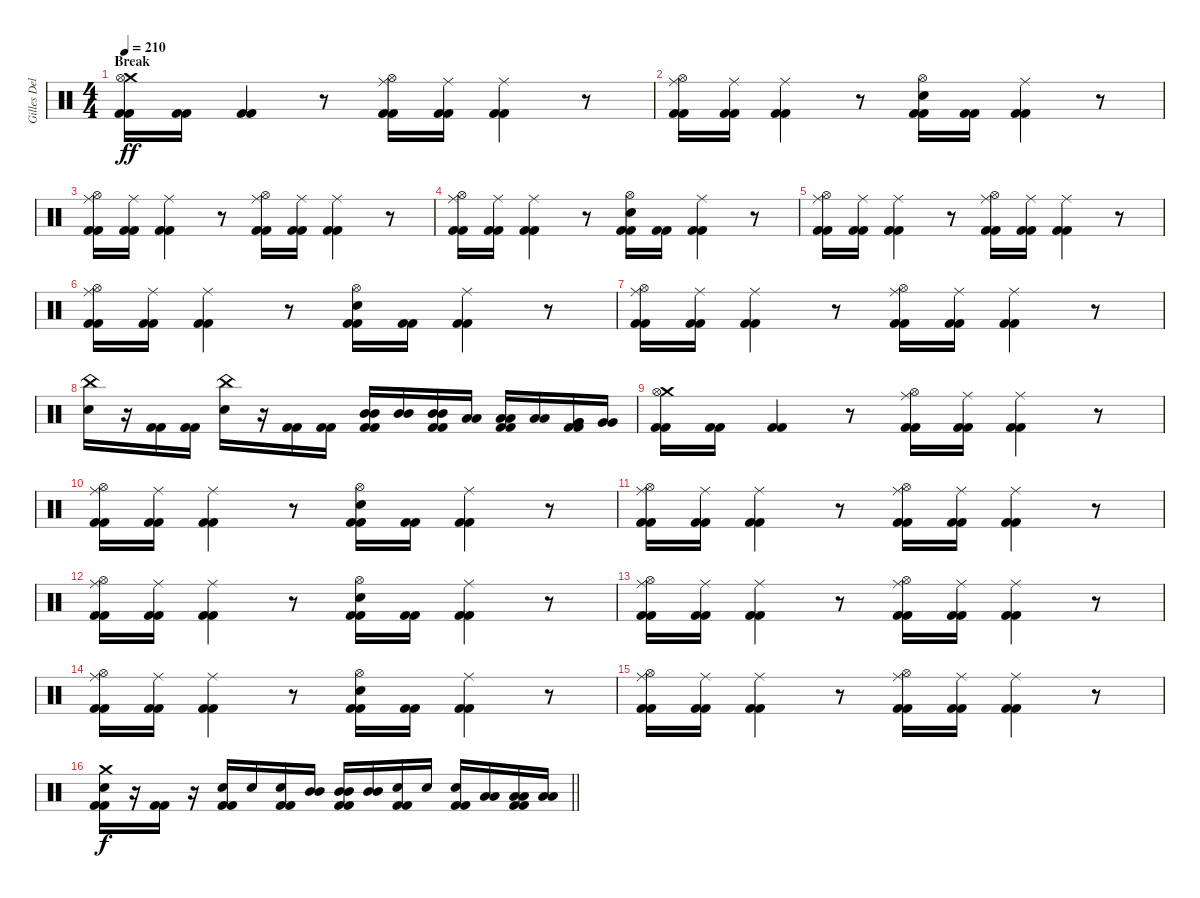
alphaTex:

\track ("Gilles Delecroix" "Gilles Del") {instrument percussion}
\staff {score}
\articulation defaults
\ts (4 4)
\section ("" "Break")
\tempo 210
\clef neutral
\ks c
("Crash medium (hit)" "Hi-Hat (open)" "Kick (hit) 2" "Kick (hit) 2").16{dy ff} ("Kick (hit) 2" "Kick (hit) 2").16 ("Kick (hit) 2" "Kick (hit) 2").4 r.8 ("Ride (middle)" "Hi-Hat (open)" "Kick (hit) 2" "Kick (hit) 2").16 ("Ride (middle)" "Kick (hit) 2" "Kick (hit) 2").16 ("Ride (middle)" "Kick (hit) 2" "Kick (hit) 2").4 r.8 |
("Ride (middle)" "Hi-Hat (open)" "Kick (hit) 2" "Kick (hit) 2").16 ("Ride (middle)" "Kick (hit) 2" "Kick (hit) 2").16 ("Ride (middle)" "Kick (hit) 2" "Kick (hit) 2").4 r.8 ("Electric Snare (hit)" "Hi-Hat (open)" "Kick (hit) 2" "Kick (hit) 2").16 ("Kick (hit) 2" "Kick (hit) 2").16 ("Ride (middle)" "Kick (hit) 2" "Kick (hit) 2").4 r.8 |
("Ride (middle)" "Hi-Hat (open)" "Kick (hit) 2" "Kick (hit) 2").16 ("Ride (middle)" "Kick (hit) 2" "Kick (hit) 2").16 ("Ride (middle)" "Kick (hit) 2" "Kick (hit) 2").4 r.8 ("Ride (middle)" "Hi-Hat (open)" "Kick (hit) 2" "Kick (hit) 2").16 ("Ride (middle)" "Kick (hit) 2" "Kick (hit) 2").16 ("Ride (middle)" "Kick (hit) 2" "Kick (hit) 2").4 r.8 |
("Ride (middle)" "Hi-Hat (open)" "Kick (hit) 2" "Kick (hit) 2").16 ("Ride (middle)" "Kick (hit) 2" "Kick (hit) 2").16 ("Ride (middle)" "Kick (hit) 2" "Kick (hit) 2").4 r.8 ("Electric Snare (hit)" "Hi-Hat (open)" "Kick (hit) 2" "Kick (hit) 2").16 ("Kick (hit) 2" "Kick (hit) 2").16 ("Ride (middle)" "Kick (hit) 2" "Kick (hit) 2").4 r.8 |
("Ride (middle)" "Hi-Hat (open)" "Kick (hit) 2" "Kick (hit) 2").16 ("Ride (middle)" "Kick (hit) 2" "Kick (hit) 2").16 ("Ride (middle)" "Kick (hit) 2" "Kick (hit) 2").4 r.8 ("Ride (middle)" "Hi-Hat (open)" "Kick (hit) 2" "Kick (hit) 2").16 ("Ride (middle)" "Kick (hit) 2" "Kick (hit) 2").16 ("Ride (middle)" "Kick (hit) 2" "Kick (hit) 2").4 r.8 |
("Ride (middle)" "Hi-Hat (open)" "Kick (hit) 2" "Kick (hit) 2").16 ("Ride (middle)" "Kick (hit) 2" "Kick (hit) 2").16 ("Ride (middle)" "Kick (hit) 2" "Kick (hit) 2").4 r.8 ("Electric Snare (hit)" "Hi-Hat (open)" "Kick (hit) 2" "Kick (hit) 2").16 ("Kick (hit) 2" "Kick (hit) 2").16 ("Ride (middle)" "Kick (hit) 2" "Kick (hit) 2").4 r.8 |
("Ride (middle)" "Hi-Hat (open)" "Kick (hit) 2" "Kick (hit) 2").16 ("Ride (middle)" "Kick (hit) 2" "Kick (hit) 2").16 ("Ride (middle)" "Kick (hit) 2" "Kick (hit) 2").4 r.8 ("Ride (middle)" "Hi-Hat (open)" "Kick (hit) 2" "Kick (hit) 2").16 ("Ride (middle)" "Kick (hit) 2" "Kick (hit) 2").16 ("Ride (middle)" "Kick (hit) 2" "Kick (hit) 2").4 r.8 |
("China (hit)" "Electric Snare (hit)").16 r.16 ("Kick (hit) 2" "Kick (hit) 2").16 ("Kick (hit) 2" "Kick (hit) 2").16 ("China (hit)" "Electric Snare (hit)").16 r.16 ("Kick (hit) 2" "Kick (hit) 2").16 ("Kick (hit) 2" "Kick (hit) 2").16 ("Mid Tom (hit)" "Mid Tom (hit)" "Kick (hit) 2" "Kick (hit) 2").16 ("Mid Tom (hit)" "Mid Tom (hit)").16 ("Mid Tom (hit)" "Mid Tom (hit)" "Kick (hit) 2" "Kick (hit) 2").16 ("Low Tom (hit)" "Low Tom (hit)").16 ("Low Tom (hit)" "Low Tom (hit)" "Kick (hit) 2" "Kick (hit) 2").16 ("Low Tom (hit)" "Low Tom (hit)").16 ("Very Low Tom (hit)" "Very Low Tom (hit)" "Kick (hit) 2" "Kick (hit) 2").16 ("Very Low Tom (hit)" "Very Low Tom (hit)").16 |
("Crash medium (hit)" "Hi-Hat (open)" "Kick (hit) 2" "Kick (hit) 2").16 ("Kick (hit) 2" "Kick (hit) 2").16 ("Kick (hit) 2" "Kick (hit) 2").4 r.8 ("Ride (middle)" "Hi-Hat (open)" "Kick (hit) 2" "Kick (hit) 2").16 ("Ride (middle)" "Kick (hit) 2" "Kick (hit) 2").16 ("Ride (middle)" "Kick (hit) 2" "Kick (hit) 2").4 r.8 |
("Ride (middle)" "Hi-Hat (open)" "Kick (hit) 2" "Kick (hit) 2").16 ("Ride (middle)" "Kick (hit) 2" "Kick (hit) 2").16 ("Ride (middle)" "Kick (hit) 2" "Kick (hit) 2").4 r.8 ("Electric Snare (hit)" "Hi-Hat (open)" "Kick (hit) 2" "Kick (hit) 2").16 ("Kick (hit) 2" "Kick (hit) 2").16 ("Ride (middle)" "Kick (hit) 2" "Kick (hit) 2").4 r.8 |
("Ride (middle)" "Hi-Hat (open)" "Kick (hit) 2" "Kick (hit) 2").16 ("Ride (middle)" "Kick (hit) 2" "Kick (hit) 2").16 ("Ride (middle)" "Kick (hit) 2" "Kick (hit) 2").4 r.8 ("Ride (middle)" "Hi-Hat (open)" "Kick (hit) 2" "Kick (hit) 2").16 ("Ride (middle)" "Kick (hit) 2" "Kick (hit) 2").16 ("Ride (middle)" "Kick (hit) 2" "Kick (hit) 2").4 r.8 |
("Ride (middle)" "Hi-Hat (open)" "Kick (hit) 2" "Kick (hit) 2").16 ("Ride (middle)" "Kick (hit) 2" "Kick (hit) 2").16 ("Ride (middle)" "Kick (hit) 2" "Kick (hit) 2").4 r.8 ("Electric Snare (hit)" "Hi-Hat (open)" "Kick (hit) 2" "Kick (hit) 2").16 ("Kick (hit) 2" "Kick (hit) 2").16 ("Ride (middle)" "Kick (hit) 2" "Kick (hit) 2").4 r.8 |
("Ride (middle)" "Hi-Hat (open)" "Kick (hit) 2" "Kick (hit) 2").16 ("Ride (middle)" "Kick (hit) 2" "Kick (hit) 2").16 ("Ride (middle)" "Kick (hit) 2" "Kick (hit) 2").4 r.8 ("Ride (middle)" "Hi-Hat (open)" "Kick (hit) 2" "Kick (hit) 2").16 ("Ride (middle)" "Kick (hit) 2" "Kick (hit) 2").16 ("Ride (middle)" "Kick (hit) 2" "Kick (hit) 2").4 r.8 |
("Ride (middle)" "Hi-Hat (open)" "Kick (hit) 2" "Kick (hit) 2").16 ("Ride (middle)" "Kick (hit) 2" "Kick (hit) 2").16 ("Ride (middle)" "Kick (hit) 2" "Kick (hit) 2").4 r.8 ("Electric Snare (hit)" "Hi-Hat (open)" "Kick (hit) 2" "Kick (hit) 2").16 ("Kick (hit) 2" "Kick (hit) 2").16 ("Ride (middle)" "Kick (hit) 2" "Kick (hit) 2").4 r.8 |
("Ride (middle)" "Hi-Hat (open)" "Kick (hit) 2" "Kick (hit) 2").16 ("Ride (middle)" "Kick (hit) 2" "Kick (hit) 2").16 ("Ride (middle)" "Kick (hit) 2" "Kick (hit) 2").4 r.8 ("Ride (middle)" "Hi-Hat (open)" "Kick (hit) 2" "Kick (hit) 2").16 ("Ride (middle)" "Kick (hit) 2" "Kick (hit) 2").16 ("Ride (middle)" "Kick (hit) 2" "Kick (hit) 2").4 r.8 |
\barLineRight lightlight
("Crash medium (hit)" "Electric Snare (hit)" "Kick (hit) 2" "Kick (hit) 2").16{dy f} r.16 ("Kick (hit) 2" "Kick (hit) 2").16 r.16 ("Electric Snare (hit)" "Kick (hit) 2" "Kick (hit) 2").16 "Electric Snare (hit)".16 ("Electric Snare (hit)" "Kick (hit) 2" "Kick (hit) 2").16 ("Mid Tom (hit)" "Mid Tom (hit)").16 ("Mid Tom (hit)" "Mid Tom (hit)" "Kick (hit) 2" "Kick (hit) 2").16 ("Mid Tom (hit)" "Mid Tom (hit)").16 ("Electric Snare (hit)" "Kick (hit) 2" "Kick (hit) 2").16 "Electric Snare (hit)".16 ("Electric Snare (hit)" "Kick (hit) 2" "Kick (hit) 2").16 ("Low Tom (hit)" "Low Tom (hit)").16 ("Low Tom (hit)" "Low Tom (hit)" "Kick (hit) 2" "Kick (hit) 2").16 ("Low Tom (hit)" "Low Tom (hit)").16
